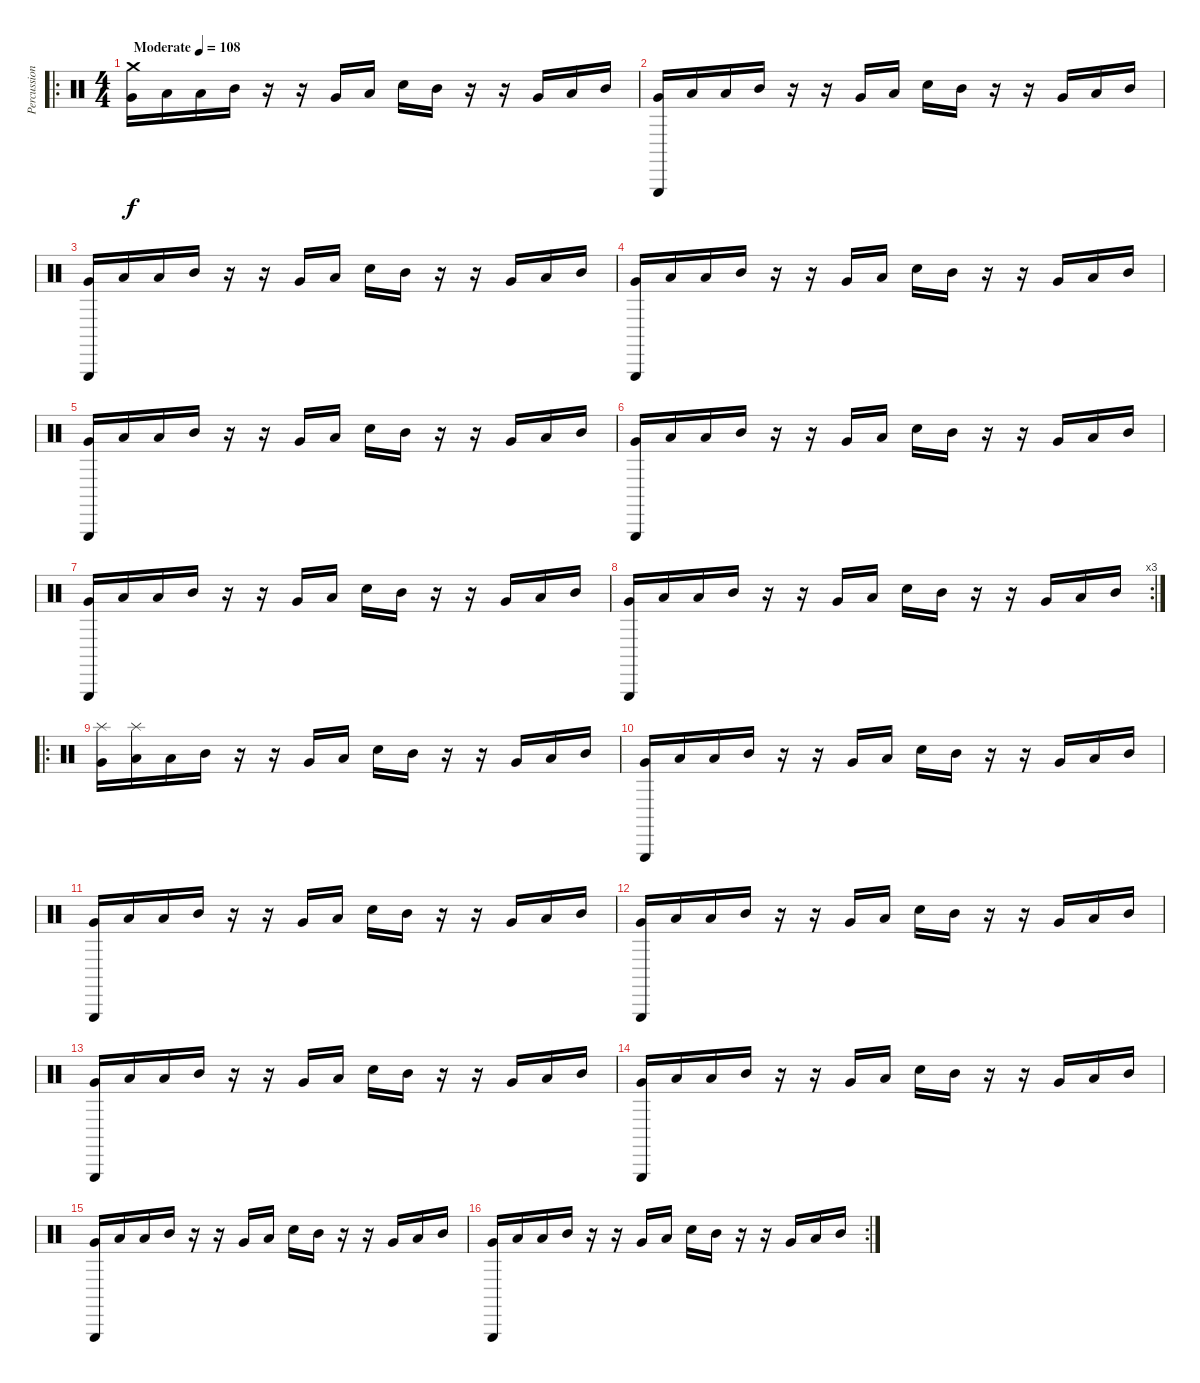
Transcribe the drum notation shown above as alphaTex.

\track ("Percussions" "Percussion") {instrument percussion}
\staff {score}
\articulation defaults
\ro
\ts (4 4)
\tempo (108 "Moderate")
\clef neutral
\ks c
("Crash medium (hit)" "Very Low Tom (hit)").16{dy f} "Low Tom (hit)".16 "Low Floor Tom (hit)".16 "Mid Tom (hit)".16 r.16 r.16 "Very Low Tom (hit)".16 "Low Tom (hit)".16 "Snare (hit)".16 "Mid Tom (hit)".16 r.16 r.16 "Very Low Tom (hit)".16 "Low Tom (hit)".16 "Mid Tom (hit)".16 |
("Triangle (hit)" "Very Low Tom (hit)").16 "Low Tom (hit)".16 "Low Floor Tom (hit)".16 "Mid Tom (hit)".16 r.16 r.16 "Very Low Tom (hit)".16 "Low Tom (hit)".16 "Snare (hit)".16 "Mid Tom (hit)".16 r.16 r.16 "Very Low Tom (hit)".16 "Low Tom (hit)".16 "Mid Tom (hit)".16 |
("Triangle (hit)" "Very Low Tom (hit)").16 "Low Tom (hit)".16 "Low Floor Tom (hit)".16 "Mid Tom (hit)".16 r.16 r.16 "Very Low Tom (hit)".16 "Low Tom (hit)".16 "Snare (hit)".16 "Mid Tom (hit)".16 r.16 r.16 "Very Low Tom (hit)".16 "Low Tom (hit)".16 "Mid Tom (hit)".16 |
("Triangle (hit)" "Very Low Tom (hit)").16 "Low Tom (hit)".16 "Low Floor Tom (hit)".16 "Mid Tom (hit)".16 r.16 r.16 "Very Low Tom (hit)".16 "Low Tom (hit)".16 "Snare (hit)".16 "Mid Tom (hit)".16 r.16 r.16 "Very Low Tom (hit)".16 "Low Tom (hit)".16 "Mid Tom (hit)".16 |
("Triangle (hit)" "Very Low Tom (hit)").16 "Low Tom (hit)".16 "Low Floor Tom (hit)".16 "Mid Tom (hit)".16 r.16 r.16 "Very Low Tom (hit)".16 "Low Tom (hit)".16 "Snare (hit)".16 "Mid Tom (hit)".16 r.16 r.16 "Very Low Tom (hit)".16 "Low Tom (hit)".16 "Mid Tom (hit)".16 |
("Triangle (hit)" "Very Low Tom (hit)").16 "Low Tom (hit)".16 "Low Floor Tom (hit)".16 "Mid Tom (hit)".16 r.16 r.16 "Very Low Tom (hit)".16 "Low Tom (hit)".16 "Snare (hit)".16 "Mid Tom (hit)".16 r.16 r.16 "Very Low Tom (hit)".16 "Low Tom (hit)".16 "Mid Tom (hit)".16 |
("Triangle (hit)" "Very Low Tom (hit)").16 "Low Tom (hit)".16 "Low Floor Tom (hit)".16 "Mid Tom (hit)".16 r.16 r.16 "Very Low Tom (hit)".16 "Low Tom (hit)".16 "Snare (hit)".16 "Mid Tom (hit)".16 r.16 r.16 "Very Low Tom (hit)".16 "Low Tom (hit)".16 "Mid Tom (hit)".16 |
\rc 3
("Triangle (hit)" "Very Low Tom (hit)").16 "Low Tom (hit)".16 "Low Floor Tom (hit)".16 "Mid Tom (hit)".16 r.16 r.16 "Very Low Tom (hit)".16 "Low Tom (hit)".16 "Snare (hit)".16 "Mid Tom (hit)".16 r.16 r.16 "Very Low Tom (hit)".16 "Low Tom (hit)".16 "Mid Tom (hit)".16 |
\ro
("Splash (hit)" "Very Low Tom (hit)").16 ("Splash (hit)" "Low Tom (hit)").16 "Low Floor Tom (hit)".16 "Mid Tom (hit)".16 r.16 r.16 "Very Low Tom (hit)".16 "Low Tom (hit)".16 "Snare (hit)".16 "Mid Tom (hit)".16 r.16 r.16 "Very Low Tom (hit)".16 "Low Tom (hit)".16 "Mid Tom (hit)".16 |
("Triangle (hit)" "Very Low Tom (hit)").16 "Low Tom (hit)".16 "Low Floor Tom (hit)".16 "Mid Tom (hit)".16 r.16 r.16 "Very Low Tom (hit)".16 "Low Tom (hit)".16 "Snare (hit)".16 "Mid Tom (hit)".16 r.16 r.16 "Very Low Tom (hit)".16 "Low Tom (hit)".16 "Mid Tom (hit)".16 |
("Triangle (hit)" "Very Low Tom (hit)").16 "Low Tom (hit)".16 "Low Floor Tom (hit)".16 "Mid Tom (hit)".16 r.16 r.16 "Very Low Tom (hit)".16 "Low Tom (hit)".16 "Snare (hit)".16 "Mid Tom (hit)".16 r.16 r.16 "Very Low Tom (hit)".16 "Low Tom (hit)".16 "Mid Tom (hit)".16 |
("Triangle (hit)" "Very Low Tom (hit)").16 "Low Tom (hit)".16 "Low Floor Tom (hit)".16 "Mid Tom (hit)".16 r.16 r.16 "Very Low Tom (hit)".16 "Low Tom (hit)".16 "Snare (hit)".16 "Mid Tom (hit)".16 r.16 r.16 "Very Low Tom (hit)".16 "Low Tom (hit)".16 "Mid Tom (hit)".16 |
("Triangle (hit)" "Very Low Tom (hit)").16 "Low Tom (hit)".16 "Low Floor Tom (hit)".16 "Mid Tom (hit)".16 r.16 r.16 "Very Low Tom (hit)".16 "Low Tom (hit)".16 "Snare (hit)".16 "Mid Tom (hit)".16 r.16 r.16 "Very Low Tom (hit)".16 "Low Tom (hit)".16 "Mid Tom (hit)".16 |
("Triangle (hit)" "Very Low Tom (hit)").16 "Low Tom (hit)".16 "Low Floor Tom (hit)".16 "Mid Tom (hit)".16 r.16 r.16 "Very Low Tom (hit)".16 "Low Tom (hit)".16 "Snare (hit)".16 "Mid Tom (hit)".16 r.16 r.16 "Very Low Tom (hit)".16 "Low Tom (hit)".16 "Mid Tom (hit)".16 |
("Triangle (hit)" "Very Low Tom (hit)").16 "Low Tom (hit)".16 "Low Floor Tom (hit)".16 "Mid Tom (hit)".16 r.16 r.16 "Very Low Tom (hit)".16 "Low Tom (hit)".16 "Snare (hit)".16 "Mid Tom (hit)".16 r.16 r.16 "Very Low Tom (hit)".16 "Low Tom (hit)".16 "Mid Tom (hit)".16 |
\rc 2
("Triangle (hit)" "Very Low Tom (hit)").16 "Low Tom (hit)".16 "Low Floor Tom (hit)".16 "Mid Tom (hit)".16 r.16 r.16 "Very Low Tom (hit)".16 "Low Tom (hit)".16 "Snare (hit)".16 "Mid Tom (hit)".16 r.16 r.16 "Very Low Tom (hit)".16 "Low Tom (hit)".16 "Mid Tom (hit)".16
